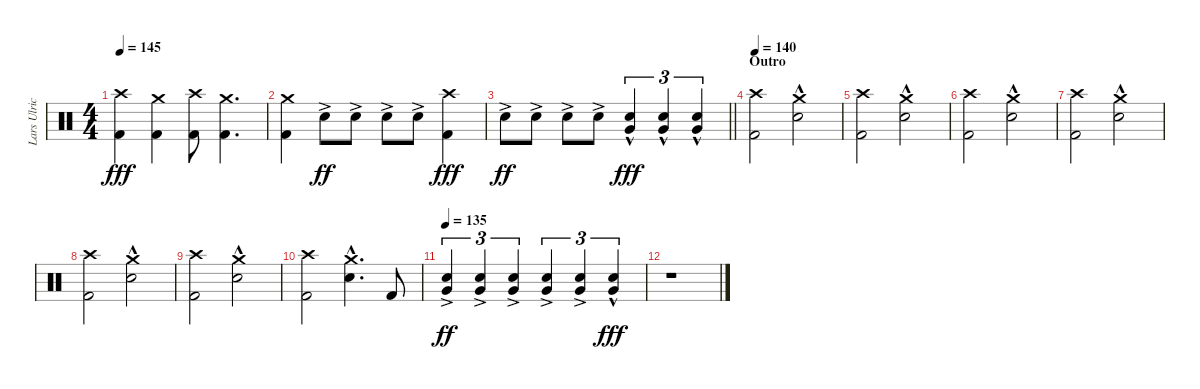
\track ("Lars Ulrich (Drums)" "Lars Ulric") {instrument percussion}
\staff {score}
\articulation defaults
\ts (4 4)
\tempo 145
\clef neutral
\ks c
("Crash high (hit)" "Kick (hit) 2").4{dy fff} ("Crash medium (hit)" "Kick (hit) 2").4 ("Crash high (hit)" "Kick (hit) 2").8 ("Crash medium (hit)" "Kick (hit) 2").4{d} |
("Crash medium (hit)" "Kick (hit) 2").4 "Electric Snare (hit)"{ac}.8{dy ff} "Electric Snare (hit)"{ac}.8 "Electric Snare (hit)"{ac}.8 "Electric Snare (hit)"{ac}.8 ("Crash high (hit)" "Kick (hit) 2").4{dy fff} |
\barLineRight lightlight "Electric Snare (hit)"{ac}.8{dy ff} "Electric Snare (hit)"{ac}.8 "Electric Snare (hit)"{ac}.8 "Electric Snare (hit)"{ac}.8
("Electric Snare (hit)"{hac} "Very Low Tom (hit)"{hac}).4{tu (3 2) dy fff} ("Electric Snare (hit)"{hac} "Very Low Tom (hit)"{hac}).4{tu (3 2)} ("Electric Snare (hit)"{hac} "Very Low Tom (hit)"{hac}).4{tu (3 2)} |
\section ("" "Outro")
\tempo 140
("Crash high (hit)" "Kick (hit) 2").2 ("Crash medium (hit)" "Electric Snare (hit)"{hac}).2 |
("Crash high (hit)" "Kick (hit) 2").2 ("Crash medium (hit)" "Electric Snare (hit)"{hac}).2 |
("Crash high (hit)" "Kick (hit) 2").2 ("Crash medium (hit)" "Electric Snare (hit)"{hac}).2 |
("Crash high (hit)" "Kick (hit) 2").2 ("Crash medium (hit)" "Electric Snare (hit)"{hac}).2 |
("Crash high (hit)" "Kick (hit) 2").2 ("Crash medium (hit)" "Electric Snare (hit)"{hac}).2 |
("Crash high (hit)" "Kick (hit) 2").2 ("Crash medium (hit)" "Electric Snare (hit)"{hac}).2 |
("Crash high (hit)" "Kick (hit) 2").2 ("Crash medium (hit)" "Electric Snare (hit)"{hac}).4{d} "Kick (hit) 2".8 |
\tempo 135
("Electric Snare (hit)"{ac} "Very Low Tom (hit)"{ac}).4{tu (3 2) dy ff} ("Electric Snare (hit)"{ac} "Very Low Tom (hit)"{ac}).4{tu (3 2)} ("Electric Snare (hit)"{ac} "Very Low Tom (hit)"{ac}).4{tu (3 2)} ("Electric Snare (hit)"{ac} "Very Low Tom (hit)"{ac}).4{tu (3 2)} ("Electric Snare (hit)"{ac} "Very Low Tom (hit)"{ac}).4{tu (3 2)} ("Electric Snare (hit)"{hac} "Very Low Tom (hit)"{hac}).4{tu (3 2) dy fff} |
r.1
